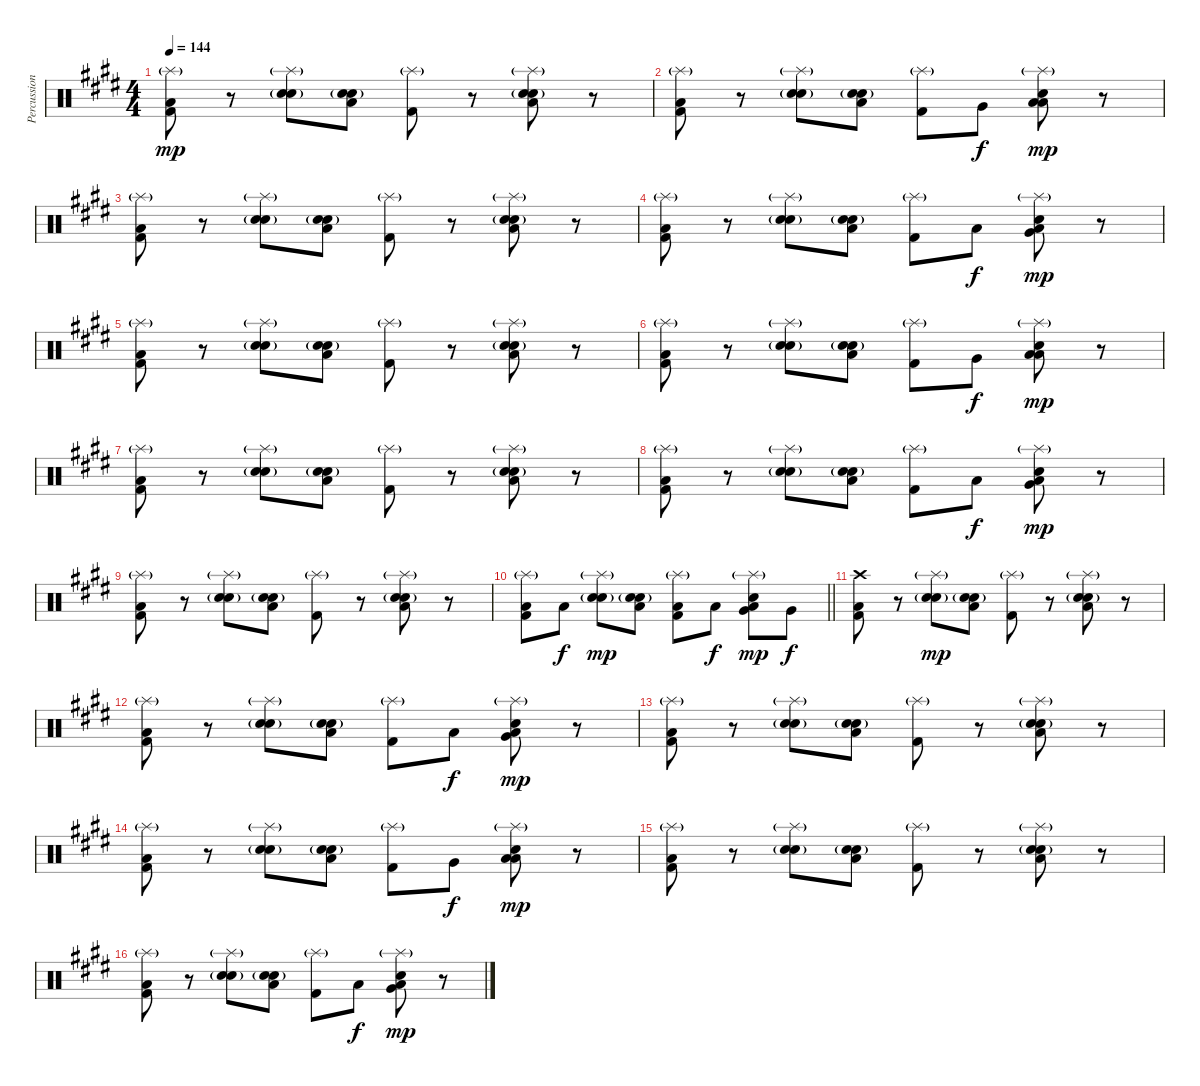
\track ("Percussion" "Percussion") {instrument percussion}
\staff {score}
\articulation defaults
\ts (4 4)
\tempo 144
\clef neutral
\ks e
("Splash (hit)"{g} "Low Floor Tom (hit)" "Kick (hit) 2").8{dy mp} r.8 ("Splash (hit)"{g} "Hand Clap (hit)" "Electric Snare (hit)"{g}).8 ("Hand Clap (hit)" "Electric Snare (hit)"{g} "Low Floor Tom (hit)").8 ("Splash (hit)"{g} "Kick (hit) 2").8 r.8 ("Splash (hit)"{g} "Hand Clap (hit)" "Electric Snare (hit)"{g} "Low Floor Tom (hit)").8 r.8 |
("Splash (hit)"{g} "Low Floor Tom (hit)" "Kick (hit) 2").8 r.8 ("Splash (hit)"{g} "Hand Clap (hit)" "Electric Snare (hit)"{g}).8 ("Hand Clap (hit)" "Electric Snare (hit)"{g} "Low Floor Tom (hit)").8 ("Splash (hit)"{g} "Kick (hit) 2").8 "Very Low Tom (hit)".8{dy f} ("Splash (hit)"{g} "Hand Clap (hit)" "Low Tom (hit)" "Low Floor Tom (hit)").8{dy mp} r.8 |
("Splash (hit)"{g} "Low Floor Tom (hit)" "Kick (hit) 2").8 r.8 ("Splash (hit)"{g} "Hand Clap (hit)" "Electric Snare (hit)"{g}).8 ("Hand Clap (hit)" "Electric Snare (hit)"{g} "Low Floor Tom (hit)").8 ("Splash (hit)"{g} "Kick (hit) 2").8 r.8 ("Splash (hit)"{g} "Hand Clap (hit)" "Electric Snare (hit)"{g} "Low Floor Tom (hit)").8 r.8 |
("Splash (hit)"{g} "Low Floor Tom (hit)" "Kick (hit) 2").8 r.8 ("Splash (hit)"{g} "Hand Clap (hit)" "Electric Snare (hit)"{g}).8 ("Hand Clap (hit)" "Electric Snare (hit)"{g} "Low Floor Tom (hit)").8 ("Splash (hit)"{g} "Kick (hit) 2").8 "Low Tom (hit)".8{dy f} ("Splash (hit)"{g} "Hand Clap (hit)" "Very Low Tom (hit)" "Low Floor Tom (hit)").8{dy mp} r.8 |
("Splash (hit)"{g} "Low Floor Tom (hit)" "Kick (hit) 2").8 r.8 ("Splash (hit)"{g} "Hand Clap (hit)" "Electric Snare (hit)"{g}).8 ("Hand Clap (hit)" "Electric Snare (hit)"{g} "Low Floor Tom (hit)").8 ("Splash (hit)"{g} "Kick (hit) 2").8 r.8 ("Splash (hit)"{g} "Hand Clap (hit)" "Electric Snare (hit)"{g} "Low Floor Tom (hit)").8 r.8 |
("Splash (hit)"{g} "Low Floor Tom (hit)" "Kick (hit) 2").8 r.8 ("Splash (hit)"{g} "Hand Clap (hit)" "Electric Snare (hit)"{g}).8 ("Hand Clap (hit)" "Electric Snare (hit)"{g} "Low Floor Tom (hit)").8 ("Splash (hit)"{g} "Kick (hit) 2").8 "Very Low Tom (hit)".8{dy f} ("Splash (hit)"{g} "Hand Clap (hit)" "Low Tom (hit)" "Low Floor Tom (hit)").8{dy mp} r.8 |
("Splash (hit)"{g} "Low Floor Tom (hit)" "Kick (hit) 2").8 r.8 ("Splash (hit)"{g} "Hand Clap (hit)" "Electric Snare (hit)"{g}).8 ("Hand Clap (hit)" "Electric Snare (hit)"{g} "Low Floor Tom (hit)").8 ("Splash (hit)"{g} "Kick (hit) 2").8 r.8 ("Splash (hit)"{g} "Hand Clap (hit)" "Electric Snare (hit)"{g} "Low Floor Tom (hit)").8 r.8 |
("Splash (hit)"{g} "Low Floor Tom (hit)" "Kick (hit) 2").8 r.8 ("Splash (hit)"{g} "Hand Clap (hit)" "Electric Snare (hit)"{g}).8 ("Hand Clap (hit)" "Electric Snare (hit)"{g} "Low Floor Tom (hit)").8 ("Splash (hit)"{g} "Kick (hit) 2").8 "Low Tom (hit)".8{dy f} ("Splash (hit)"{g} "Hand Clap (hit)" "Very Low Tom (hit)" "Low Floor Tom (hit)").8{dy mp} r.8 |
("Splash (hit)"{g} "Low Floor Tom (hit)" "Kick (hit) 2").8 r.8 ("Splash (hit)"{g} "Hand Clap (hit)" "Electric Snare (hit)"{g}).8 ("Hand Clap (hit)" "Electric Snare (hit)"{g} "Low Floor Tom (hit)").8 ("Splash (hit)"{g} "Kick (hit) 2").8 r.8 ("Splash (hit)"{g} "Hand Clap (hit)" "Electric Snare (hit)"{g} "Low Floor Tom (hit)").8 r.8 |
\barLineRight lightlight
("Splash (hit)"{g} "Low Floor Tom (hit)" "Kick (hit) 2").8 "Low Tom (hit)".8{dy f} ("Splash (hit)"{g} "Hand Clap (hit)" "Electric Snare (hit)"{g}).8{dy mp} ("Hand Clap (hit)" "Electric Snare (hit)"{g} "Low Floor Tom (hit)").8 ("Splash (hit)"{g} "Low Tom (hit)" "Kick (hit) 2").8 "Low Tom (hit)".8{dy f} ("Splash (hit)"{g} "Hand Clap (hit)" "Very Low Tom (hit)" "Low Floor Tom (hit)").8{dy mp} "Very Low Tom (hit)".8{dy f} |
("Crash high (hit)" "Low Floor Tom (hit)" "Kick (hit) 2").8 r.8 ("Splash (hit)"{g} "Hand Clap (hit)" "Electric Snare (hit)"{g}).8{dy mp} ("Hand Clap (hit)" "Electric Snare (hit)"{g} "Low Floor Tom (hit)").8 ("Splash (hit)"{g} "Kick (hit) 2").8 r.8 ("Splash (hit)"{g} "Hand Clap (hit)" "Electric Snare (hit)"{g} "Low Floor Tom (hit)").8 r.8 |
("Splash (hit)"{g} "Low Floor Tom (hit)" "Kick (hit) 2").8 r.8 ("Splash (hit)"{g} "Hand Clap (hit)" "Electric Snare (hit)"{g}).8 ("Hand Clap (hit)" "Electric Snare (hit)"{g} "Low Floor Tom (hit)").8 ("Splash (hit)"{g} "Kick (hit) 2").8 "Low Tom (hit)".8{dy f} ("Splash (hit)"{g} "Hand Clap (hit)" "Very Low Tom (hit)" "Low Floor Tom (hit)").8{dy mp} r.8 |
("Splash (hit)"{g} "Low Floor Tom (hit)" "Kick (hit) 2").8 r.8 ("Splash (hit)"{g} "Hand Clap (hit)" "Electric Snare (hit)"{g}).8 ("Hand Clap (hit)" "Electric Snare (hit)"{g} "Low Floor Tom (hit)").8 ("Splash (hit)"{g} "Kick (hit) 2").8 r.8 ("Splash (hit)"{g} "Hand Clap (hit)" "Electric Snare (hit)"{g} "Low Floor Tom (hit)").8 r.8 |
("Splash (hit)"{g} "Low Floor Tom (hit)" "Kick (hit) 2").8 r.8 ("Splash (hit)"{g} "Hand Clap (hit)" "Electric Snare (hit)"{g}).8 ("Hand Clap (hit)" "Electric Snare (hit)"{g} "Low Floor Tom (hit)").8 ("Splash (hit)"{g} "Kick (hit) 2").8 "Very Low Tom (hit)".8{dy f} ("Splash (hit)"{g} "Hand Clap (hit)" "Low Tom (hit)" "Low Floor Tom (hit)").8{dy mp} r.8 |
("Splash (hit)"{g} "Low Floor Tom (hit)" "Kick (hit) 2").8 r.8 ("Splash (hit)"{g} "Hand Clap (hit)" "Electric Snare (hit)"{g}).8 ("Hand Clap (hit)" "Electric Snare (hit)"{g} "Low Floor Tom (hit)").8 ("Splash (hit)"{g} "Kick (hit) 2").8 r.8 ("Splash (hit)"{g} "Hand Clap (hit)" "Electric Snare (hit)"{g} "Low Floor Tom (hit)").8 r.8 |
("Splash (hit)"{g} "Low Floor Tom (hit)" "Kick (hit) 2").8 r.8 ("Splash (hit)"{g} "Hand Clap (hit)" "Electric Snare (hit)"{g}).8 ("Hand Clap (hit)" "Electric Snare (hit)"{g} "Low Floor Tom (hit)").8 ("Splash (hit)"{g} "Kick (hit) 2").8 "Low Tom (hit)".8{dy f} ("Splash (hit)"{g} "Hand Clap (hit)" "Very Low Tom (hit)" "Low Floor Tom (hit)").8{dy mp} r.8
